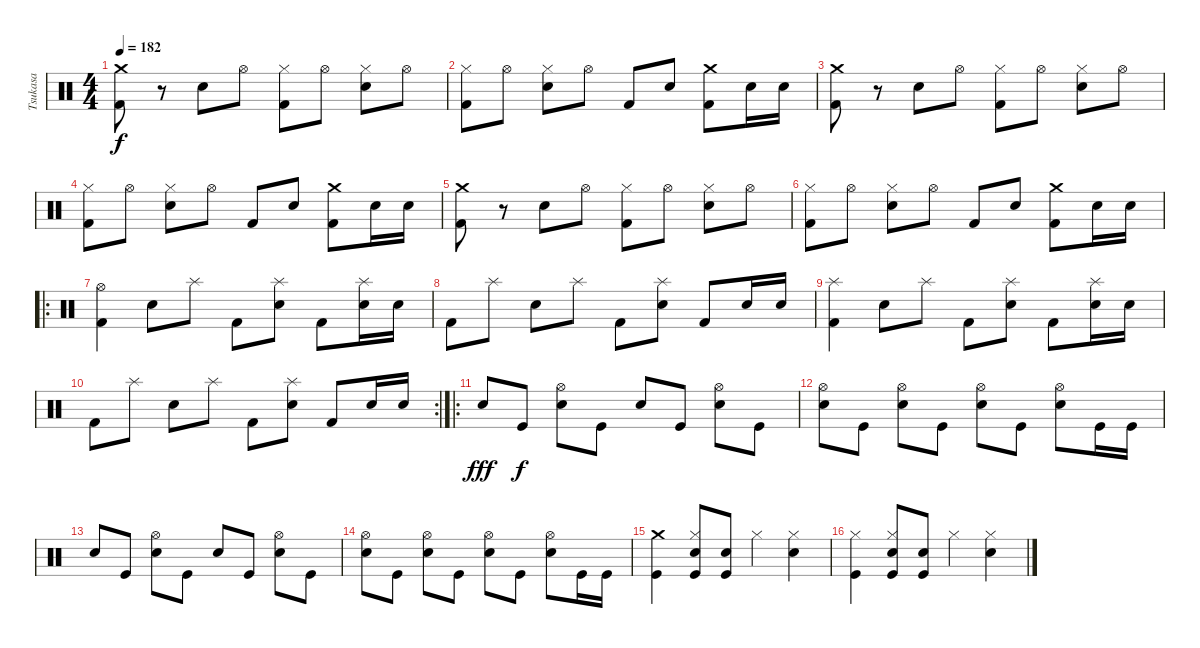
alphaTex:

\track ("Tsukasa" "Tsukasa") {instrument percussion}
\staff {score}
\articulation defaults
\ts (4 4)
\tempo 182
\clef neutral
\ks c
("Kick (hit) 2" "Crash medium (hit)").8{dy f} r.8 "Electric Snare (hit)".8 "Hi-Hat (open)".8 ("Kick (hit) 2" "Hi-Hat (closed)").8 "Hi-Hat (open)".8 ("Electric Snare (hit)" "Hi-Hat (closed)").8 "Hi-Hat (open)".8 |
("Kick (hit) 2" "Hi-Hat (closed)").8 "Hi-Hat (open)".8 ("Electric Snare (hit)" "Hi-Hat (closed)").8 "Hi-Hat (open)".8 "Kick (hit) 2".8 "Electric Snare (hit)".8 ("Kick (hit) 2" "Crash medium (hit)").8 "Electric Snare (hit)".16 "Electric Snare (hit)".16 |
("Kick (hit) 2" "Crash medium (hit)").8 r.8 "Electric Snare (hit)".8 "Hi-Hat (open)".8 ("Kick (hit) 2" "Hi-Hat (closed)").8 "Hi-Hat (open)".8 ("Electric Snare (hit)" "Hi-Hat (closed)").8 "Hi-Hat (open)".8 |
("Kick (hit) 2" "Hi-Hat (closed)").8 "Hi-Hat (open)".8 ("Electric Snare (hit)" "Hi-Hat (closed)").8 "Hi-Hat (open)".8 "Kick (hit) 2".8 "Electric Snare (hit)".8 ("Kick (hit) 2" "Crash medium (hit)").8 "Electric Snare (hit)".16 "Electric Snare (hit)".16 |
("Kick (hit) 2" "Crash medium (hit)").8 r.8 "Electric Snare (hit)".8 "Hi-Hat (open)".8 ("Kick (hit) 2" "Hi-Hat (closed)").8 "Hi-Hat (open)".8 ("Electric Snare (hit)" "Hi-Hat (closed)").8 "Hi-Hat (open)".8 |
("Kick (hit) 2" "Hi-Hat (closed)").8 "Hi-Hat (open)".8 ("Electric Snare (hit)" "Hi-Hat (closed)").8 "Hi-Hat (open)".8 "Kick (hit) 2".8 "Electric Snare (hit)".8 ("Kick (hit) 2" "Crash medium (hit)").8 "Electric Snare (hit)".16 "Electric Snare (hit)".16 |
\ro
("Kick (hit) 2" "Hi-Hat (open)").4 "Electric Snare (hit)".8 "Splash (hit)".8 "Kick (hit) 2".8 ("Electric Snare (hit)" "Splash (hit)").8 "Kick (hit) 2".8 ("Electric Snare (hit)" "Splash (hit)").16 "Electric Snare (hit)".16 |
"Kick (hit) 2".8 "Splash (hit)".8 "Electric Snare (hit)".8 "Splash (hit)".8 "Kick (hit) 2".8 ("Electric Snare (hit)" "Splash (hit)").8 "Kick (hit) 2".8 "Electric Snare (hit)".16 "Electric Snare (hit)".16 |
("Kick (hit) 2" "Splash (hit)").4 "Electric Snare (hit)".8 "Splash (hit)".8 "Kick (hit) 2".8 ("Electric Snare (hit)" "Splash (hit)").8 "Kick (hit) 2".8 ("Electric Snare (hit)" "Splash (hit)").16 "Electric Snare (hit)".16 |
\rc 2 "Kick (hit) 2".8 "Splash (hit)".8 "Electric Snare (hit)".8 "Splash (hit)".8 "Kick (hit) 2".8
("Electric Snare (hit)" "Splash (hit)").8 "Kick (hit) 2".8 "Electric Snare (hit)".16 "Electric Snare (hit)".16 |
\ro "Electric Snare (hit)".8{dy fff} "Kick (hit)".8{dy f}
("Electric Snare (hit)" "Hi-Hat (open)").8 "Kick (hit)".8 "Electric Snare (hit)".8 "Kick (hit)".8 ("Electric Snare (hit)" "Hi-Hat (open)").8 "Kick (hit)".8 |
("Electric Snare (hit)" "Hi-Hat (open)").8 "Kick (hit)".8 ("Electric Snare (hit)" "Hi-Hat (open)").8 "Kick (hit)".8 ("Electric Snare (hit)" "Hi-Hat (open)").8 "Kick (hit)".8 ("Electric Snare (hit)" "Hi-Hat (open)").8 "Kick (hit)".16 "Kick (hit)".16 |
"Electric Snare (hit)".8 "Kick (hit)".8 ("Electric Snare (hit)" "Hi-Hat (open)").8 "Kick (hit)".8 "Electric Snare (hit)".8 "Kick (hit)".8 ("Electric Snare (hit)" "Hi-Hat (open)").8 "Kick (hit)".8 |
("Electric Snare (hit)" "Hi-Hat (open)").8 "Kick (hit)".8 ("Electric Snare (hit)" "Hi-Hat (open)").8 "Kick (hit)".8 ("Electric Snare (hit)" "Hi-Hat (open)").8 "Kick (hit)".8 ("Electric Snare (hit)" "Hi-Hat (open)").8 "Kick (hit)".16 "Kick (hit)".16 |
("Kick (hit)" "Crash medium (hit)").4 ("Electric Snare (hit)" "Hi-Hat (closed)" "Kick (hit)").8 ("Electric Snare (hit)" "Kick (hit)").8 "Hi-Hat (closed)".4 ("Electric Snare (hit)" "Hi-Hat (closed)").4 |
("Kick (hit)" "Hi-Hat (closed)").4 ("Electric Snare (hit)" "Hi-Hat (closed)" "Kick (hit)").8 ("Electric Snare (hit)" "Kick (hit)").8 "Hi-Hat (closed)".4 ("Electric Snare (hit)" "Hi-Hat (closed)").4
